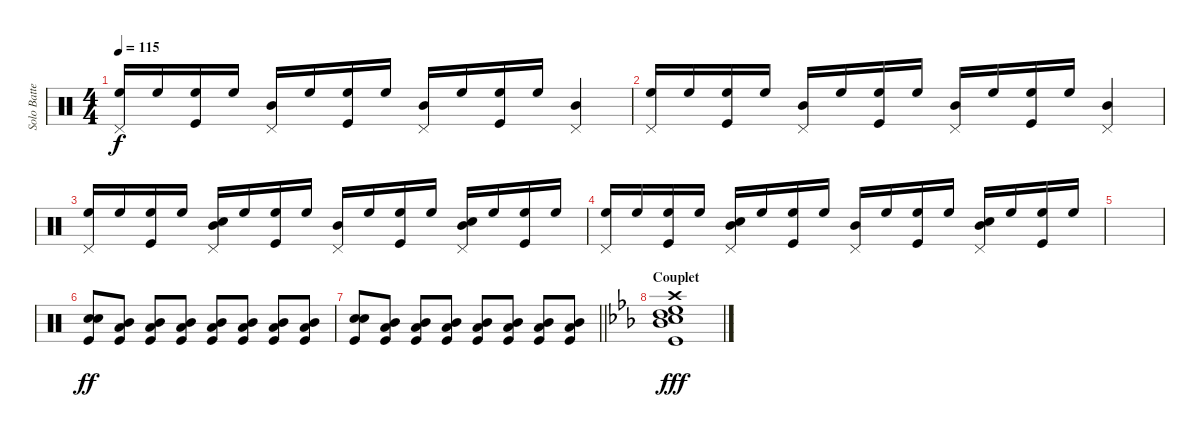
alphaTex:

\track ("Solo Batterie" "Solo Batte") {instrument percussion}
\staff {score}
\articulation defaults
\ts (4 4)
\tempo 115
\clef neutral
\ks c
("High Floor Tom (hit)" "Pedal Hi-Hat (hit)").16{dy f} "High Floor Tom (hit)".16 ("High Floor Tom (hit)" "Kick (hit)").16 "High Floor Tom (hit)".16 ("Mid Tom (hit)" "Pedal Hi-Hat (hit)").16 "High Floor Tom (hit)".16 ("High Floor Tom (hit)" "Kick (hit)").16 "High Floor Tom (hit)".16 ("Mid Tom (hit)" "Pedal Hi-Hat (hit)").16 "High Floor Tom (hit)".16 ("High Floor Tom (hit)" "Kick (hit)").16 "High Floor Tom (hit)".16 ("Mid Tom (hit)" "Pedal Hi-Hat (hit)").4 |
("High Floor Tom (hit)" "Pedal Hi-Hat (hit)").16 "High Floor Tom (hit)".16 ("High Floor Tom (hit)" "Kick (hit)").16 "High Floor Tom (hit)".16 ("Mid Tom (hit)" "Pedal Hi-Hat (hit)").16 "High Floor Tom (hit)".16 ("High Floor Tom (hit)" "Kick (hit)").16 "High Floor Tom (hit)".16 ("Mid Tom (hit)" "Pedal Hi-Hat (hit)").16 "High Floor Tom (hit)".16 ("High Floor Tom (hit)" "Kick (hit)").16 "High Floor Tom (hit)".16 ("Mid Tom (hit)" "Pedal Hi-Hat (hit)").4 |
("High Floor Tom (hit)" "Pedal Hi-Hat (hit)").16 "High Floor Tom (hit)".16 ("High Floor Tom (hit)" "Kick (hit)").16 "High Floor Tom (hit)".16 ("Mid Tom (hit)" "Pedal Hi-Hat (hit)" "Snare (hit) 2").16 "High Floor Tom (hit)".16 ("High Floor Tom (hit)" "Kick (hit)").16 "High Floor Tom (hit)".16 ("Mid Tom (hit)" "Pedal Hi-Hat (hit)").16 "High Floor Tom (hit)".16 ("High Floor Tom (hit)" "Kick (hit)").16 "High Floor Tom (hit)".16 ("Mid Tom (hit)" "Pedal Hi-Hat (hit)" "Snare (hit) 2").16 "High Floor Tom (hit)".16 ("High Floor Tom (hit)" "Kick (hit)").16 "High Floor Tom (hit)".16 |
("High Floor Tom (hit)" "Pedal Hi-Hat (hit)").16 "High Floor Tom (hit)".16 ("High Floor Tom (hit)" "Kick (hit)").16 "High Floor Tom (hit)".16 ("Mid Tom (hit)" "Pedal Hi-Hat (hit)" "Snare (hit) 2").16 "High Floor Tom (hit)".16 ("High Floor Tom (hit)" "Kick (hit)").16 "High Floor Tom (hit)".16 ("Mid Tom (hit)" "Pedal Hi-Hat (hit)").16 "High Floor Tom (hit)".16 ("High Floor Tom (hit)" "Kick (hit)").16 "High Floor Tom (hit)".16 ("Mid Tom (hit)" "Pedal Hi-Hat (hit)" "Snare (hit) 2").16 "High Floor Tom (hit)".16 ("High Floor Tom (hit)" "Kick (hit)").16 "High Floor Tom (hit)".16 |
|
("Snare (hit) 2" "Snare (hit) 2" "Kick (hit)").8{dy ff} ("Mid Tom (hit)" "Low Tom (hit)" "Kick (hit)").8 ("Low Tom (hit)" "Mid Tom (hit)" "Kick (hit)").8 ("Mid Tom (hit)" "Low Tom (hit)" "Kick (hit)").8 ("Low Tom (hit)" "Mid Tom (hit)" "Kick (hit)").8 ("Mid Tom (hit)" "Low Tom (hit)" "Kick (hit)").8 ("Low Tom (hit)" "Mid Tom (hit)" "Kick (hit)").8 ("Low Tom (hit)" "Mid Tom (hit)" "Kick (hit)").8 |
\barLineRight lightlight
("Snare (hit) 2" "Snare (hit) 2" "Kick (hit)").8 ("Mid Tom (hit)" "Low Tom (hit)" "Kick (hit)").8 ("Low Tom (hit)" "Mid Tom (hit)" "Kick (hit)").8 ("Mid Tom (hit)" "Low Tom (hit)" "Kick (hit)").8 ("Low Tom (hit)" "Mid Tom (hit)" "Kick (hit)").8 ("Mid Tom (hit)" "Low Tom (hit)" "Kick (hit)").8 ("Low Tom (hit)" "Mid Tom (hit)" "Kick (hit)").8 ("Low Tom (hit)" "Mid Tom (hit)" "Kick (hit)").8{volume 10} |
\section ("" "Couplet")
\ks eb
("Crash high (hit)" "Kick (hit)" "Snare (hit) 2" "High Floor Tom (hit)" "High Tom (hit)" "Mid Tom (hit)").1{dy fff}
